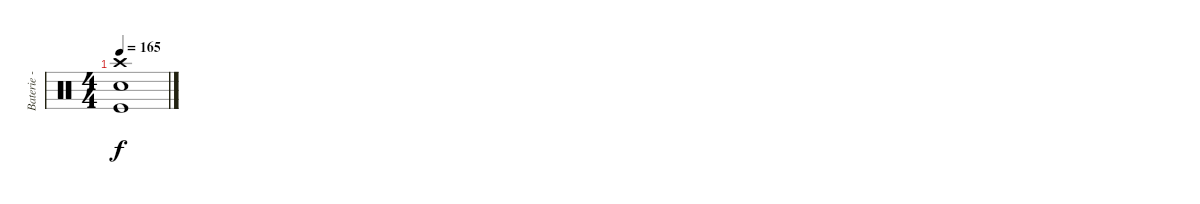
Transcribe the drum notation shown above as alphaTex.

\track ("Baterie - Alex" "Baterie - ") {instrument percussion}
\staff {score}
\articulation defaults
\ts (4 4)
\tempo 165
\clef neutral
\ks c
("Crash high (hit)" "Electric Snare (hit)" "Kick (hit)").1{dy f}
